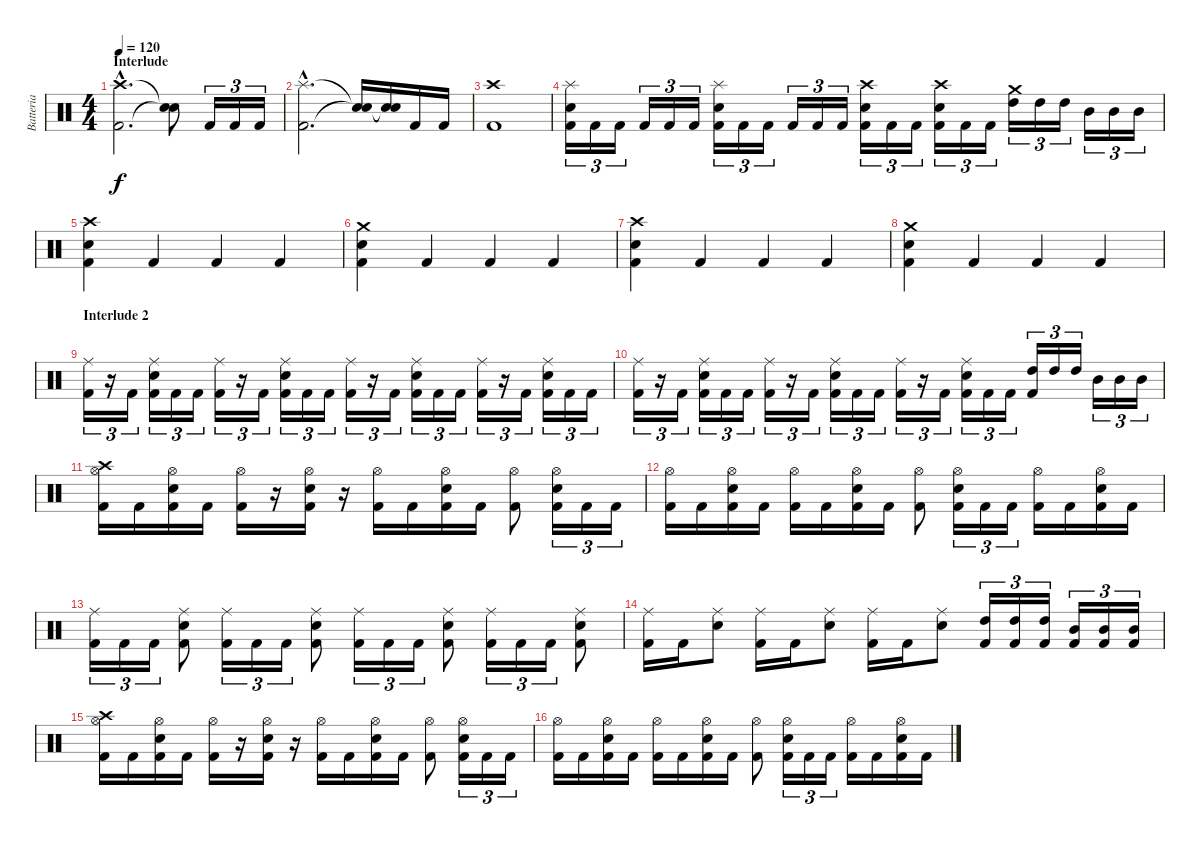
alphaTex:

\track ("Batteria" "Batteria") {instrument percussion}
\staff {score}
\articulation defaults
\ts (4 4)
\section ("" "Interlude")
\tempo 120
\clef neutral
\ks c
("Crash high (hit)"{hac} "Kick (hit) 2"{hac}).2{d dy f} ("Snare (hit)"{t} "Snare (hit)"{t}).8 "Kick (hit) 2".16{tu (3 2)} "Kick (hit) 2".16{tu (3 2)} "Kick (hit) 2".16{tu (3 2)} |
("Splash (hit)"{hac} "Kick (hit) 2"{hac}).2{d} ("Snare (hit)"{t} "Snare (hit)"{t}).16 ("Snare (hit)"{t} "Snare (hit)"{t}).16 "Kick (hit) 2".16 "Kick (hit) 2".16 |
("Crash high (hit)" "Kick (hit) 2").1 |
("Splash (hit)" "Snare (hit) 2" "Kick (hit) 2").16{tu (3 2)} "Kick (hit) 2".16{tu (3 2)} "Kick (hit) 2".16{tu (3 2)} "Kick (hit) 2".16{tu (3 2)} "Kick (hit) 2".16{tu (3 2)} "Kick (hit) 2".16{tu (3 2)} ("Splash (hit)" "Snare (hit) 2" "Kick (hit) 2").16{tu (3 2)} "Kick (hit) 2".16{tu (3 2)} "Kick (hit) 2".16{tu (3 2)} "Kick (hit) 2".16{tu (3 2)} "Kick (hit) 2".16{tu (3 2)} "Kick (hit) 2".16{tu (3 2)} ("Crash high (hit)" "Snare (hit) 2" "Kick (hit) 2").16{tu (3 2)} "Kick (hit) 2".16{tu (3 2)} "Kick (hit) 2".16{tu (3 2)} ("Crash high (hit)" "Snare (hit) 2" "Kick (hit) 2").16{tu (3 2)} "Kick (hit) 2".16{tu (3 2)} "Kick (hit) 2".16{tu (3 2)} ("Crash medium (hit)" "High Tom (hit)").16{tu (3 2)} "High Tom (hit)".16{tu (3 2)} "High Tom (hit)".16{tu (3 2)} "Mid Tom (hit)".16{tu (3 2)} "Mid Tom (hit)".16{tu (3 2)} "Mid Tom (hit)".16{tu (3 2)} |
("Crash high (hit)" "Snare (hit) 2" "Kick (hit) 2").4 "Kick (hit) 2".4 "Kick (hit) 2".4 "Kick (hit) 2".4 |
("Crash medium (hit)" "Snare (hit) 2" "Kick (hit) 2").4 "Kick (hit) 2".4 "Kick (hit) 2".4 "Kick (hit) 2".4 |
("Crash high (hit)" "Snare (hit) 2" "Kick (hit) 2").4 "Kick (hit) 2".4 "Kick (hit) 2".4 "Kick (hit) 2".4 |
("Crash medium (hit)" "Snare (hit) 2" "Kick (hit) 2").4 "Kick (hit) 2".4 "Kick (hit) 2".4 "Kick (hit) 2".4 |
\section ("" "Interlude 2")
("Ride (middle)" "Kick (hit) 2").16{tu (3 2)} r.16{tu (3 2)} "Kick (hit) 2".16{tu (3 2)} ("Ride (middle)" "Snare (hit) 2" "Kick (hit) 2").16{tu (3 2)} "Kick (hit) 2".16{tu (3 2)} "Kick (hit) 2".16{tu (3 2)} ("Ride (middle)" "Kick (hit) 2").16{tu (3 2)} r.16{tu (3 2)} "Kick (hit) 2".16{tu (3 2)} ("Ride (middle)" "Snare (hit) 2" "Kick (hit) 2").16{tu (3 2)} "Kick (hit) 2".16{tu (3 2)} "Kick (hit) 2".16{tu (3 2)} ("Ride (middle)" "Kick (hit) 2").16{tu (3 2)} r.16{tu (3 2)} "Kick (hit) 2".16{tu (3 2)} ("Ride (middle)" "Snare (hit) 2" "Kick (hit) 2").16{tu (3 2)} "Kick (hit) 2".16{tu (3 2)} "Kick (hit) 2".16{tu (3 2)} ("Ride (middle)" "Kick (hit) 2").16{tu (3 2)} r.16{tu (3 2)} "Kick (hit) 2".16{tu (3 2)} ("Ride (middle)" "Snare (hit) 2" "Kick (hit) 2").16{tu (3 2)} "Kick (hit) 2".16{tu (3 2)} "Kick (hit) 2".16{tu (3 2)} |
("Ride (middle)" "Kick (hit) 2").16{tu (3 2)} r.16{tu (3 2)} "Kick (hit) 2".16{tu (3 2)} ("Ride (middle)" "Snare (hit) 2" "Kick (hit) 2").16{tu (3 2)} "Kick (hit) 2".16{tu (3 2)} "Kick (hit) 2".16{tu (3 2)} ("Ride (middle)" "Kick (hit) 2").16{tu (3 2)} r.16{tu (3 2)} "Kick (hit) 2".16{tu (3 2)} ("Ride (middle)" "Snare (hit) 2" "Kick (hit) 2").16{tu (3 2)} "Kick (hit) 2".16{tu (3 2)} "Kick (hit) 2".16{tu (3 2)} ("Ride (middle)" "Kick (hit) 2").16{tu (3 2)} r.16{tu (3 2)} "Kick (hit) 2".16{tu (3 2)} ("Ride (middle)" "Snare (hit) 2" "Kick (hit) 2").16{tu (3 2)} "Kick (hit) 2".16{tu (3 2)} "Kick (hit) 2".16{tu (3 2)} ("High Tom (hit)" "Kick (hit) 2").16{tu (3 2)} "High Tom (hit)".16{tu (3 2)} "High Tom (hit)".16{tu (3 2)} "Mid Tom (hit)".16{tu (3 2)} "Mid Tom (hit)".16{tu (3 2)} "Mid Tom (hit)".16{tu (3 2)} |
("Hi-Hat (open)" "Crash high (hit)" "Kick (hit) 2").16 "Kick (hit) 2".16 ("Hi-Hat (open)" "Snare (hit) 2" "Kick (hit) 2").16 "Kick (hit) 2".16 ("Hi-Hat (open)" "Kick (hit) 2").16 r.16 ("Hi-Hat (open)" "Snare (hit) 2" "Kick (hit) 2").16 r.16 ("Hi-Hat (open)" "Kick (hit) 2").16 "Kick (hit) 2".16 ("Hi-Hat (open)" "Snare (hit) 2" "Kick (hit) 2").16 "Kick (hit) 2".16 ("Hi-Hat (open)" "Kick (hit) 2").8 ("Hi-Hat (open)" "Snare (hit) 2" "Kick (hit) 2").16{tu (3 2)} "Kick (hit) 2".16{tu (3 2)} "Kick (hit) 2".16{tu (3 2)} |
("Hi-Hat (open)" "Kick (hit) 2").16 "Kick (hit) 2".16 ("Hi-Hat (open)" "Snare (hit) 2" "Kick (hit) 2").16 "Kick (hit) 2".16 ("Hi-Hat (open)" "Kick (hit) 2").16 "Kick (hit) 2".16 ("Hi-Hat (open)" "Snare (hit) 2" "Kick (hit) 2").16 "Kick (hit) 2".16 ("Hi-Hat (open)" "Kick (hit) 2").8 ("Hi-Hat (open)" "Snare (hit) 2" "Kick (hit) 2").16{tu (3 2)} "Kick (hit) 2".16{tu (3 2)} "Kick (hit) 2".16{tu (3 2)} ("Hi-Hat (open)" "Kick (hit) 2").16 "Kick (hit) 2".16 ("Hi-Hat (open)" "Snare (hit) 2" "Kick (hit) 2").16 "Kick (hit) 2".16 |
("Ride (middle)" "Kick (hit) 2").16{tu (3 2)} "Kick (hit) 2".16{tu (3 2)} "Kick (hit) 2".16{tu (3 2)} ("Ride (middle)" "Snare (hit) 2" "Kick (hit) 2").8 ("Ride (middle)" "Kick (hit) 2").16{tu (3 2)} "Kick (hit) 2".16{tu (3 2)} "Kick (hit) 2".16{tu (3 2)} ("Ride (middle)" "Snare (hit) 2" "Kick (hit) 2").8 ("Ride (middle)" "Kick (hit) 2").16{tu (3 2)} "Kick (hit) 2".16{tu (3 2)} "Kick (hit) 2".16{tu (3 2)} ("Ride (middle)" "Snare (hit) 2" "Kick (hit) 2").8 ("Ride (middle)" "Kick (hit) 2").16{tu (3 2)} "Kick (hit) 2".16{tu (3 2)} "Kick (hit) 2".16{tu (3 2)} ("Ride (middle)" "Snare (hit) 2" "Kick (hit) 2").8 |
("Ride (middle)" "Kick (hit) 2").16 "Kick (hit) 2".16 ("Ride (middle)" "Snare (hit) 2").8 ("Ride (middle)" "Kick (hit) 2").16 "Kick (hit) 2".16 ("Ride (middle)" "Snare (hit) 2").8 ("Ride (middle)" "Kick (hit) 2").16 "Kick (hit) 2".16 ("Ride (middle)" "Snare (hit) 2").8 ("High Tom (hit)" "Kick (hit) 2").16{tu (3 2)} ("High Tom (hit)" "Kick (hit) 2").16{tu (3 2)} ("High Tom (hit)" "Kick (hit) 2").16{tu (3 2)} ("Mid Tom (hit)" "Kick (hit) 2").16{tu (3 2)} ("Mid Tom (hit)" "Kick (hit) 2").16{tu (3 2)} ("Mid Tom (hit)" "Kick (hit) 2").16{tu (3 2)} |
("Hi-Hat (open)" "Crash high (hit)" "Kick (hit) 2").16 "Kick (hit) 2".16 ("Hi-Hat (open)" "Snare (hit) 2" "Kick (hit) 2").16 "Kick (hit) 2".16 ("Hi-Hat (open)" "Kick (hit) 2").16 r.16 ("Hi-Hat (open)" "Snare (hit) 2" "Kick (hit) 2").16 r.16 ("Hi-Hat (open)" "Kick (hit) 2").16 "Kick (hit) 2".16 ("Hi-Hat (open)" "Snare (hit) 2" "Kick (hit) 2").16 "Kick (hit) 2".16 ("Hi-Hat (open)" "Kick (hit) 2").8 ("Hi-Hat (open)" "Snare (hit) 2" "Kick (hit) 2").16{tu (3 2)} "Kick (hit) 2".16{tu (3 2)} "Kick (hit) 2".16{tu (3 2)} |
("Hi-Hat (open)" "Kick (hit) 2").16 "Kick (hit) 2".16 ("Hi-Hat (open)" "Snare (hit) 2" "Kick (hit) 2").16 "Kick (hit) 2".16 ("Hi-Hat (open)" "Kick (hit) 2").16 "Kick (hit) 2".16 ("Hi-Hat (open)" "Snare (hit) 2" "Kick (hit) 2").16 "Kick (hit) 2".16 ("Hi-Hat (open)" "Kick (hit) 2").8 ("Hi-Hat (open)" "Snare (hit) 2" "Kick (hit) 2").16{tu (3 2)} "Kick (hit) 2".16{tu (3 2)} "Kick (hit) 2".16{tu (3 2)} ("Hi-Hat (open)" "Kick (hit) 2").16 "Kick (hit) 2".16 ("Hi-Hat (open)" "Snare (hit) 2" "Kick (hit) 2").16 "Kick (hit) 2".16
